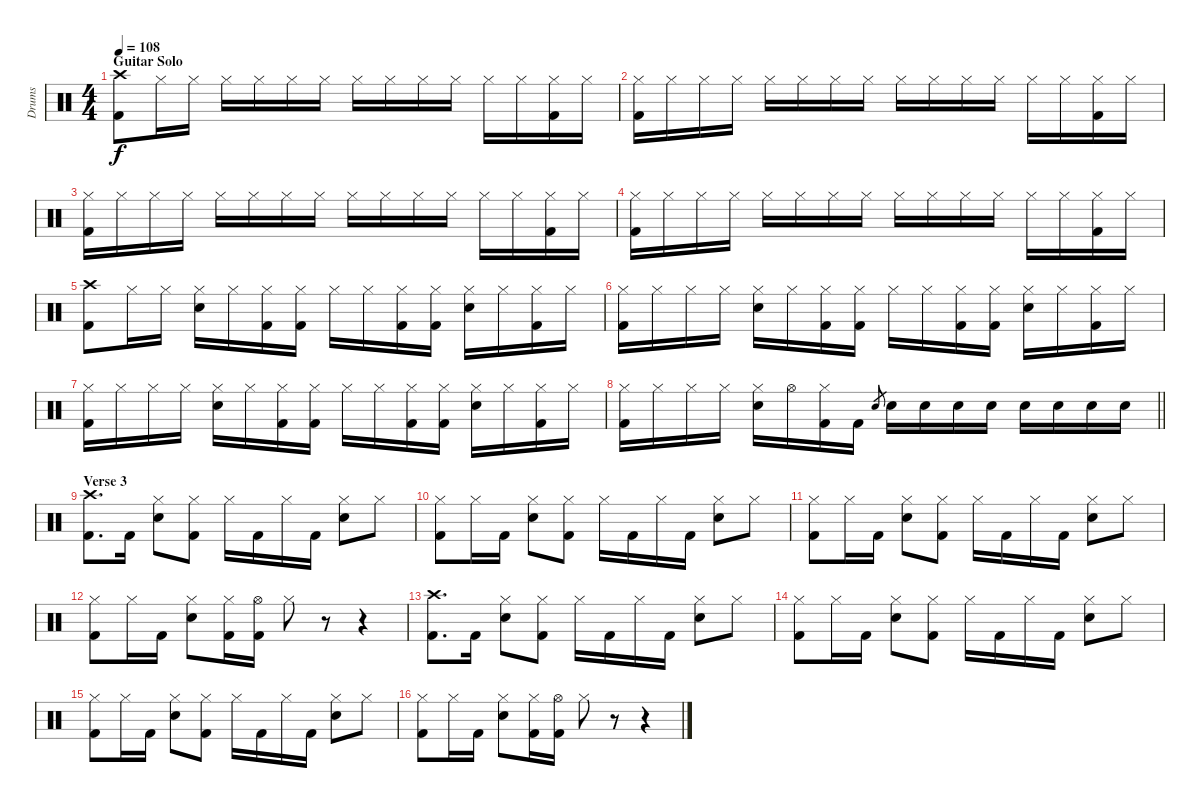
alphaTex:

\track ("Drums" "Drums") {instrument percussion}
\staff {score}
\articulation defaults
\ts (4 4)
\section ("" "Guitar Solo")
\tempo 108
\clef neutral
\ks c
("Crash high (hit)" "Kick (hit) 2").8{dy f} "Hi-Hat (closed)".16 "Hi-Hat (closed)".16 "Hi-Hat (closed)".16 "Hi-Hat (closed)".16 "Hi-Hat (closed)".16 "Hi-Hat (closed)".16 "Hi-Hat (closed)".16 "Hi-Hat (closed)".16 "Hi-Hat (closed)".16 "Hi-Hat (closed)".16 "Hi-Hat (closed)".16 "Hi-Hat (closed)".16 ("Hi-Hat (closed)" "Kick (hit) 2").16 "Hi-Hat (closed)".16 |
("Hi-Hat (closed)" "Kick (hit) 2").16 "Hi-Hat (closed)".16 "Hi-Hat (closed)".16 "Hi-Hat (closed)".16 "Hi-Hat (closed)".16 "Hi-Hat (closed)".16 "Hi-Hat (closed)".16 "Hi-Hat (closed)".16 "Hi-Hat (closed)".16 "Hi-Hat (closed)".16 "Hi-Hat (closed)".16 "Hi-Hat (closed)".16 "Hi-Hat (closed)".16 "Hi-Hat (closed)".16 ("Hi-Hat (closed)" "Kick (hit) 2").16 "Hi-Hat (closed)".16 |
("Hi-Hat (closed)" "Kick (hit) 2").16 "Hi-Hat (closed)".16 "Hi-Hat (closed)".16 "Hi-Hat (closed)".16 "Hi-Hat (closed)".16 "Hi-Hat (closed)".16 "Hi-Hat (closed)".16 "Hi-Hat (closed)".16 "Hi-Hat (closed)".16 "Hi-Hat (closed)".16 "Hi-Hat (closed)".16 "Hi-Hat (closed)".16 "Hi-Hat (closed)".16 "Hi-Hat (closed)".16 ("Hi-Hat (closed)" "Kick (hit) 2").16 "Hi-Hat (closed)".16 |
("Hi-Hat (closed)" "Kick (hit) 2").16 "Hi-Hat (closed)".16 "Hi-Hat (closed)".16 "Hi-Hat (closed)".16 "Hi-Hat (closed)".16 "Hi-Hat (closed)".16 "Hi-Hat (closed)".16 "Hi-Hat (closed)".16 "Hi-Hat (closed)".16 "Hi-Hat (closed)".16 "Hi-Hat (closed)".16 "Hi-Hat (closed)".16 "Hi-Hat (closed)".16 "Hi-Hat (closed)".16 ("Hi-Hat (closed)" "Kick (hit) 2").16 "Hi-Hat (closed)".16 |
("Crash high (hit)" "Kick (hit) 2").8 "Hi-Hat (closed)".16 "Hi-Hat (closed)".16 ("Hi-Hat (closed)" "Electric Snare (hit)").16 "Hi-Hat (closed)".16 ("Hi-Hat (closed)" "Kick (hit) 2").16 ("Hi-Hat (closed)" "Kick (hit) 2").16 "Hi-Hat (closed)".16 "Hi-Hat (closed)".16 ("Hi-Hat (closed)" "Kick (hit) 2").16 ("Hi-Hat (closed)" "Kick (hit) 2").16 ("Hi-Hat (closed)" "Electric Snare (hit)").16 "Hi-Hat (closed)".16 ("Hi-Hat (closed)" "Kick (hit) 2").16 "Hi-Hat (closed)".16 |
("Hi-Hat (closed)" "Kick (hit) 2").16 "Hi-Hat (closed)".16 "Hi-Hat (closed)".16 "Hi-Hat (closed)".16 ("Hi-Hat (closed)" "Electric Snare (hit)").16 "Hi-Hat (closed)".16 ("Hi-Hat (closed)" "Kick (hit) 2").16 ("Hi-Hat (closed)" "Kick (hit) 2").16 "Hi-Hat (closed)".16 "Hi-Hat (closed)".16 ("Hi-Hat (closed)" "Kick (hit) 2").16 ("Hi-Hat (closed)" "Kick (hit) 2").16 ("Hi-Hat (closed)" "Electric Snare (hit)").16 "Hi-Hat (closed)".16 ("Hi-Hat (closed)" "Kick (hit) 2").16 "Hi-Hat (closed)".16 |
("Hi-Hat (closed)" "Kick (hit) 2").16 "Hi-Hat (closed)".16 "Hi-Hat (closed)".16 "Hi-Hat (closed)".16 ("Hi-Hat (closed)" "Electric Snare (hit)").16 "Hi-Hat (closed)".16 ("Hi-Hat (closed)" "Kick (hit) 2").16 ("Hi-Hat (closed)" "Kick (hit) 2").16 "Hi-Hat (closed)".16 "Hi-Hat (closed)".16 ("Hi-Hat (closed)" "Kick (hit) 2").16 ("Hi-Hat (closed)" "Kick (hit) 2").16 ("Hi-Hat (closed)" "Electric Snare (hit)").16 "Hi-Hat (closed)".16 ("Hi-Hat (closed)" "Kick (hit) 2").16 "Hi-Hat (closed)".16 |
\barLineRight lightlight
("Hi-Hat (closed)" "Kick (hit) 2").16 "Hi-Hat (closed)".16 "Hi-Hat (closed)".16 "Hi-Hat (closed)".16 ("Hi-Hat (closed)" "Electric Snare (hit)").16 "Hi-Hat (open)".16 ("Hi-Hat (closed)" "Kick (hit) 2").16 "Kick (hit) 2".16 "Electric Snare (hit)".8{gr} "Electric Snare (hit)".16 "Electric Snare (hit)".16 "Electric Snare (hit)".16 "Electric Snare (hit)".16 "Electric Snare (hit)".16 "Electric Snare (hit)".16 "Electric Snare (hit)".16 "Electric Snare (hit)".16 |
\section ("" "Verse 3")
("Crash high (hit)" "Kick (hit) 2").8{d} "Kick (hit) 2".16 ("Hi-Hat (closed)" "Electric Snare (hit)").8 ("Hi-Hat (closed)" "Kick (hit) 2").8 "Hi-Hat (closed)".16 "Kick (hit) 2".16 "Hi-Hat (closed)".16 "Kick (hit) 2".16 ("Hi-Hat (closed)" "Electric Snare (hit)").8 "Hi-Hat (closed)".8 |
("Hi-Hat (closed)" "Kick (hit) 2").8 "Hi-Hat (closed)".16 "Kick (hit) 2".16 ("Hi-Hat (closed)" "Electric Snare (hit)").8 ("Hi-Hat (closed)" "Kick (hit) 2").8 "Hi-Hat (closed)".16 "Kick (hit) 2".16 "Hi-Hat (closed)".16 "Kick (hit) 2".16 ("Hi-Hat (closed)" "Electric Snare (hit)").8 "Hi-Hat (closed)".8 |
("Hi-Hat (closed)" "Kick (hit) 2").8 "Hi-Hat (closed)".16 "Kick (hit) 2".16 ("Hi-Hat (closed)" "Electric Snare (hit)").8 ("Hi-Hat (closed)" "Kick (hit) 2").8 "Hi-Hat (closed)".16 "Kick (hit) 2".16 "Hi-Hat (closed)".16 "Kick (hit) 2".16 ("Hi-Hat (closed)" "Electric Snare (hit)").8 "Hi-Hat (closed)".8 |
("Hi-Hat (closed)" "Kick (hit) 2").8 "Hi-Hat (closed)".16 "Kick (hit) 2".16 ("Hi-Hat (closed)" "Electric Snare (hit)").8 ("Hi-Hat (closed)" "Kick (hit) 2").16 ("Hi-Hat (open)" "Kick (hit) 2").16 "Hi-Hat (closed)".8 r.8 r.4 |
("Crash high (hit)" "Kick (hit) 2").8{d} "Kick (hit) 2".16 ("Hi-Hat (closed)" "Electric Snare (hit)").8 ("Hi-Hat (closed)" "Kick (hit) 2").8 "Hi-Hat (closed)".16 "Kick (hit) 2".16 "Hi-Hat (closed)".16 "Kick (hit) 2".16 ("Hi-Hat (closed)" "Electric Snare (hit)").8 "Hi-Hat (closed)".8 |
("Hi-Hat (closed)" "Kick (hit) 2").8 "Hi-Hat (closed)".16 "Kick (hit) 2".16 ("Hi-Hat (closed)" "Electric Snare (hit)").8 ("Hi-Hat (closed)" "Kick (hit) 2").8 "Hi-Hat (closed)".16 "Kick (hit) 2".16 "Hi-Hat (closed)".16 "Kick (hit) 2".16 ("Hi-Hat (closed)" "Electric Snare (hit)").8 "Hi-Hat (closed)".8 |
("Hi-Hat (closed)" "Kick (hit) 2").8 "Hi-Hat (closed)".16 "Kick (hit) 2".16 ("Hi-Hat (closed)" "Electric Snare (hit)").8 ("Hi-Hat (closed)" "Kick (hit) 2").8 "Hi-Hat (closed)".16 "Kick (hit) 2".16 "Hi-Hat (closed)".16 "Kick (hit) 2".16 ("Hi-Hat (closed)" "Electric Snare (hit)").8 "Hi-Hat (closed)".8 |
("Hi-Hat (closed)" "Kick (hit) 2").8 "Hi-Hat (closed)".16 "Kick (hit) 2".16 ("Hi-Hat (closed)" "Electric Snare (hit)").8 ("Hi-Hat (closed)" "Kick (hit) 2").16 ("Hi-Hat (open)" "Kick (hit) 2").16 "Hi-Hat (closed)".8 r.8 r.4
